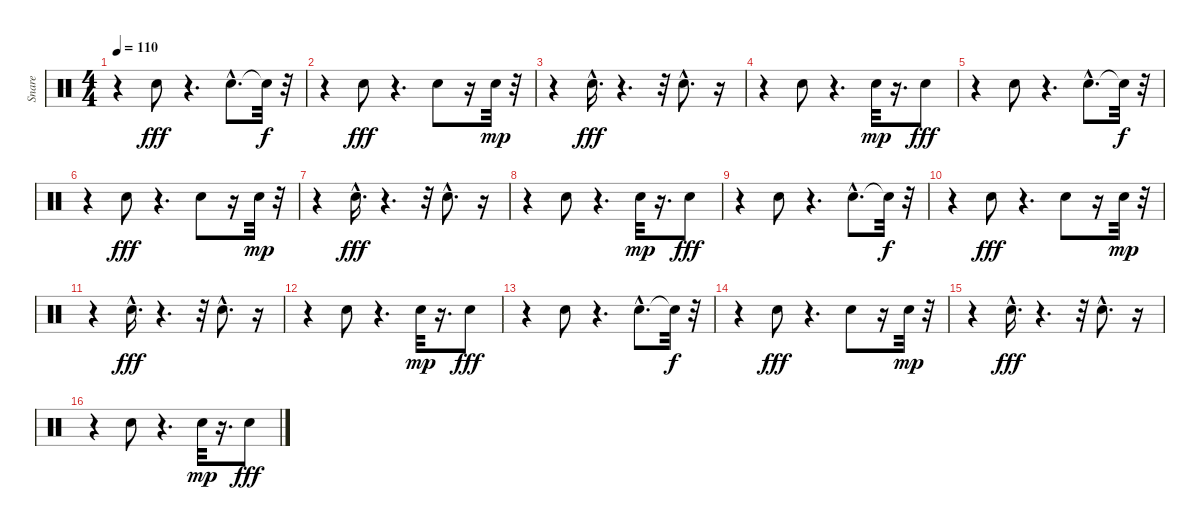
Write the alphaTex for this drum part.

\track ("Snare" "Snare") {instrument percussion}
\staff {score}
\articulation defaults
\ts (4 4)
\tempo 110
\clef neutral
\ks c
r.4{dy fff} "Snare (hit) 2".8 r.4{d} "Snare (hit) 2"{hac}.8{d} "Snare (hit)"{t}.32{dy f} r.32 |
r.4 "Snare (hit) 2".8{dy fff} r.4{d} "Snare (hit) 2".8 r.16 "Snare (hit) 2".32{dy mp} r.32 |
r.4 "Snare (hit) 2"{hac}.16{d dy fff} r.4{d} r.32 "Snare (hit) 2"{hac}.8{d} r.16 |
r.4 "Snare (hit) 2".8 r.4{d} "Snare (hit) 2".32{dy mp} r.16{d} "Snare (hit) 2".8{dy fff} |
r.4 "Snare (hit) 2".8 r.4{d} "Snare (hit) 2"{hac}.8{d} "Snare (hit)"{t}.32{dy f} r.32 |
r.4 "Snare (hit) 2".8{dy fff} r.4{d} "Snare (hit) 2".8 r.16 "Snare (hit) 2".32{dy mp} r.32 |
r.4 "Snare (hit) 2"{hac}.16{d dy fff} r.4{d} r.32 "Snare (hit) 2"{hac}.8{d} r.16 |
r.4 "Snare (hit) 2".8 r.4{d} "Snare (hit) 2".32{dy mp} r.16{d} "Snare (hit) 2".8{dy fff} |
r.4 "Snare (hit) 2".8 r.4{d} "Snare (hit) 2"{hac}.8{d} "Snare (hit)"{t}.32{dy f} r.32 |
r.4 "Snare (hit) 2".8{dy fff} r.4{d} "Snare (hit) 2".8 r.16 "Snare (hit) 2".32{dy mp} r.32 |
r.4 "Snare (hit) 2"{hac}.16{d dy fff} r.4{d} r.32 "Snare (hit) 2"{hac}.8{d} r.16 |
r.4 "Snare (hit) 2".8 r.4{d} "Snare (hit) 2".32{dy mp} r.16{d} "Snare (hit) 2".8{dy fff} |
r.4 "Snare (hit) 2".8 r.4{d} "Snare (hit) 2"{hac}.8{d} "Snare (hit)"{t}.32{dy f} r.32 |
r.4 "Snare (hit) 2".8{dy fff} r.4{d} "Snare (hit) 2".8 r.16 "Snare (hit) 2".32{dy mp} r.32 |
r.4 "Snare (hit) 2"{hac}.16{d dy fff} r.4{d} r.32 "Snare (hit) 2"{hac}.8{d} r.16 |
r.4 "Snare (hit) 2".8 r.4{d} "Snare (hit) 2".32{dy mp} r.16{d} "Snare (hit) 2".8{dy fff}
